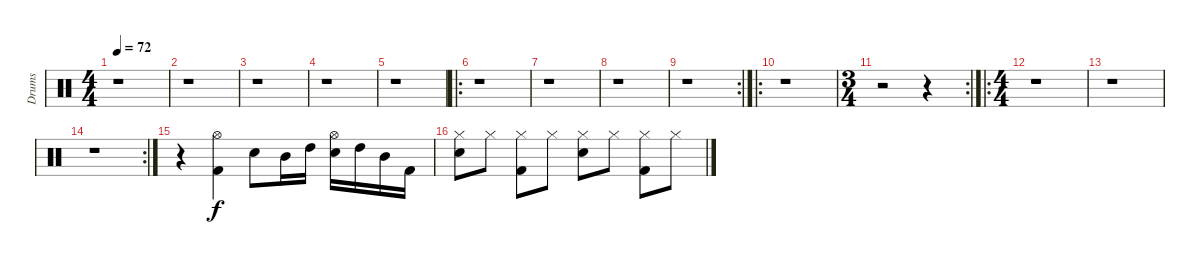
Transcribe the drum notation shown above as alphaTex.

\track ("Drums" "Drums") {instrument percussion}
\staff {score}
\articulation defaults
\ts (4 4)
\tempo 72
\clef neutral
\ks c
r.1{dy f} |
r.1 |
r.1 |
r.1 |
r.1 |
\ro
r.1 |
r.1 |
r.1 |
\rc 2
r.1 |
\ro
r.1 |
\rc 2
\ts (3 4)
r.2 r.4 |
\ro
\ts (4 4)
r.1 |
r.1 |
\rc 2
r.1 |
r.4 ("Hi-Hat (open)" "Kick (hit) 2").4 "Electric Snare (hit)".8 "Mid Tom (hit)".16 "High Tom (hit)".16 ("Hi-Hat (open)" "Electric Snare (hit)").16 "High Tom (hit)".16 "Mid Tom (hit)".16 "Kick (hit) 2".16 |
("Hi-Hat (closed)" "Electric Snare (hit)").8 "Hi-Hat (closed)".8 ("Hi-Hat (closed)" "Kick (hit) 2").8 "Hi-Hat (closed)".8 ("Hi-Hat (closed)" "Electric Snare (hit)").8 "Hi-Hat (closed)".8 ("Hi-Hat (closed)" "Kick (hit) 2").8 "Hi-Hat (closed)".8
